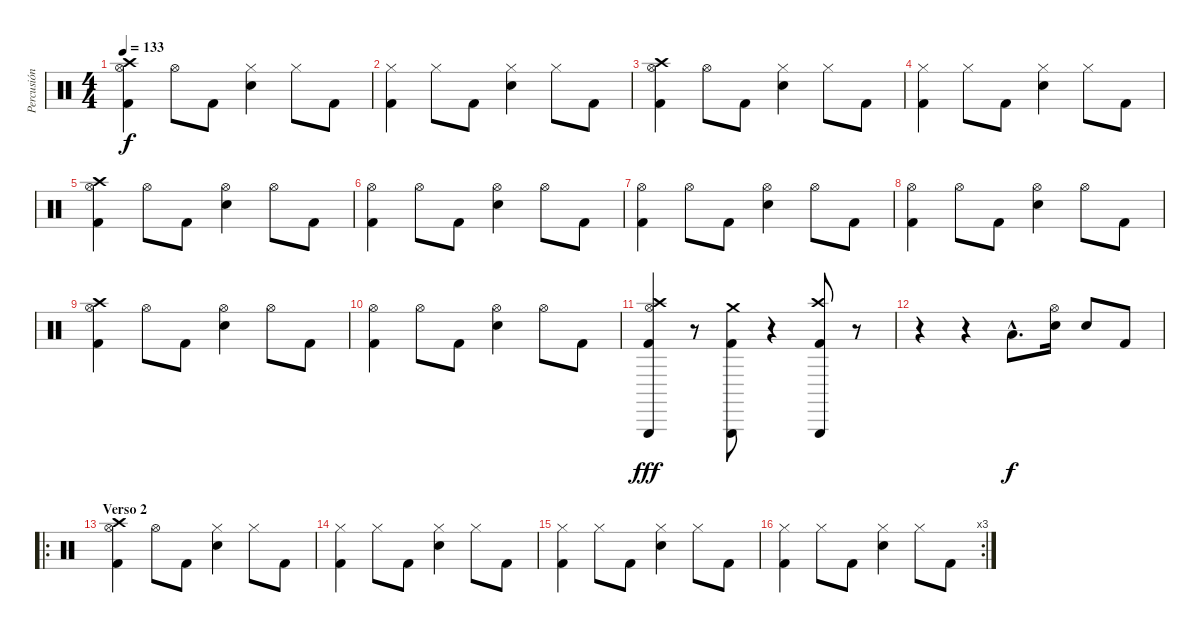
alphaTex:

\track ("Percusión" "Percusión") {instrument percussion}
\staff {score}
\articulation defaults
\ts (4 4)
\tempo 133
\clef neutral
\ks c
("Crash high (hit)" "Hi-Hat (open)" "Kick (hit) 2").4{dy f} "Hi-Hat (open)".8 "Kick (hit) 2".8 ("Electric Snare (hit)" "Hi-Hat (closed)").4 "Hi-Hat (closed)".8 "Kick (hit) 2".8 |
("Hi-Hat (closed)" "Kick (hit) 2").4 "Hi-Hat (closed)".8 "Kick (hit) 2".8 ("Electric Snare (hit)" "Hi-Hat (closed)").4 "Hi-Hat (closed)".8 "Kick (hit) 2".8 |
("Crash high (hit)" "Hi-Hat (open)" "Kick (hit) 2").4 "Hi-Hat (open)".8 "Kick (hit) 2".8 ("Electric Snare (hit)" "Hi-Hat (closed)").4 "Hi-Hat (closed)".8 "Kick (hit) 2".8 |
("Hi-Hat (closed)" "Kick (hit) 2").4 "Hi-Hat (closed)".8 "Kick (hit) 2".8 ("Electric Snare (hit)" "Hi-Hat (closed)").4 "Hi-Hat (closed)".8 "Kick (hit) 2".8 |
("Crash high (hit)" "Hi-Hat (open)" "Kick (hit) 2").4 "Hi-Hat (open)".8 "Kick (hit) 2".8 ("Electric Snare (hit)" "Hi-Hat (open)").4 "Hi-Hat (open)".8 "Kick (hit) 2".8 |
("Hi-Hat (open)" "Kick (hit) 2").4 "Hi-Hat (open)".8 "Kick (hit) 2".8 ("Electric Snare (hit)" "Hi-Hat (open)").4 "Hi-Hat (open)".8 "Kick (hit) 2".8 |
("Hi-Hat (open)" "Kick (hit) 2").4 "Hi-Hat (open)".8 "Kick (hit) 2".8 ("Electric Snare (hit)" "Hi-Hat (open)").4 "Hi-Hat (open)".8 "Kick (hit) 2".8 |
("Hi-Hat (open)" "Kick (hit) 2").4 "Hi-Hat (open)".8 "Kick (hit) 2".8 ("Electric Snare (hit)" "Hi-Hat (open)").4 "Hi-Hat (open)".8 "Kick (hit) 2".8 |
("Crash high (hit)" "Hi-Hat (open)" "Kick (hit) 2").4 "Hi-Hat (open)".8 "Kick (hit) 2".8 ("Electric Snare (hit)" "Hi-Hat (open)").4 "Hi-Hat (open)".8 "Kick (hit) 2".8 |
("Hi-Hat (open)" "Kick (hit) 2").4 "Hi-Hat (open)".8 "Kick (hit) 2".8 ("Electric Snare (hit)" "Hi-Hat (open)").4 "Hi-Hat (open)".8 "Kick (hit) 2".8 |
("Crash high (hit)" "Triangle (hit)" "Hi-Hat (open)" "Kick (hit) 2").4{dy fff} r.8 ("Crash medium (hit)" "Triangle (hit)" "Kick (hit) 2").8 r.4 ("Crash high (hit)" "Triangle (hit)" "Kick (hit) 2").8 r.8 |
r.4 r.4 "Low Floor Tom (hit)"{hac}.8{d dy f} ("Electric Snare (hit)" "Hi-Hat (open)").16 "Electric Snare (hit)".8 "Kick (hit) 2".8 |
\ro
\section ("" "Verso 2")
("Crash high (hit)" "Hi-Hat (open)" "Kick (hit) 2").4 "Hi-Hat (open)".8 "Kick (hit) 2".8 ("Electric Snare (hit)" "Hi-Hat (closed)").4 "Hi-Hat (closed)".8 "Kick (hit) 2".8 |
("Hi-Hat (closed)" "Kick (hit) 2").4 "Hi-Hat (closed)".8 "Kick (hit) 2".8 ("Electric Snare (hit)" "Hi-Hat (closed)").4 "Hi-Hat (closed)".8 "Kick (hit) 2".8 |
("Hi-Hat (closed)" "Kick (hit) 2").4 "Hi-Hat (closed)".8 "Kick (hit) 2".8 ("Electric Snare (hit)" "Hi-Hat (closed)").4 "Hi-Hat (closed)".8 "Kick (hit) 2".8 |
\rc 3
("Hi-Hat (closed)" "Kick (hit) 2").4 "Hi-Hat (closed)".8 "Kick (hit) 2".8 ("Electric Snare (hit)" "Hi-Hat (closed)").4 "Hi-Hat (closed)".8 "Kick (hit) 2".8
